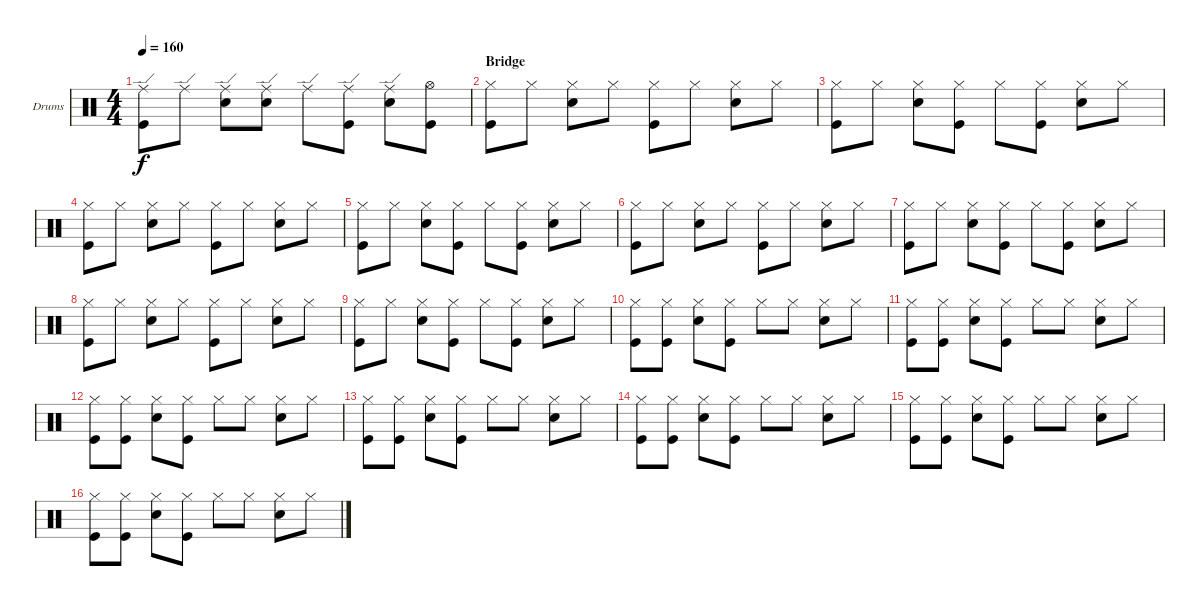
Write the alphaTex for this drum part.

\bracketExtendMode groupsimilarinstruments
\firstSystemTrackNameOrientation horizontal
\otherSystemsTrackNameOrientation horizontal
\track ("Fabrizio" "Drums") {instrument percussion}
\staff {score}
\articulation defaults
\ts (4 4)
\tempo 160
\clef neutral
\ks c
("Kick (hit)" "Ride (edge)").8{dy f} "Ride (edge)".8 ("Snare (hit) 2" "Ride (edge)").8 ("Snare (hit) 2" "Ride (edge)").8 "Ride (edge)".8 ("Kick (hit)" "Ride (edge)").8 ("Snare (hit) 2" "Ride (edge)").8 ("Kick (hit)" "Hi-Hat (open)").8 |
\section ("" "Bridge")
("Hi-Hat (closed)" "Kick (hit)").8 "Hi-Hat (closed)".8 ("Hi-Hat (closed)" "Snare (hit) 2").8 "Hi-Hat (closed)".8 ("Hi-Hat (closed)" "Kick (hit)").8 "Hi-Hat (closed)".8 ("Hi-Hat (closed)" "Snare (hit) 2").8 "Hi-Hat (closed)".8 |
("Hi-Hat (closed)" "Kick (hit)").8 "Hi-Hat (closed)".8 ("Hi-Hat (closed)" "Snare (hit) 2").8 ("Hi-Hat (closed)" "Kick (hit)").8 "Hi-Hat (closed)".8 ("Hi-Hat (closed)" "Kick (hit)").8 ("Hi-Hat (closed)" "Snare (hit) 2").8 "Hi-Hat (closed)".8 |
("Hi-Hat (closed)" "Kick (hit)").8 "Hi-Hat (closed)".8 ("Hi-Hat (closed)" "Snare (hit) 2").8 "Hi-Hat (closed)".8 ("Hi-Hat (closed)" "Kick (hit)").8 "Hi-Hat (closed)".8 ("Hi-Hat (closed)" "Snare (hit) 2").8 "Hi-Hat (closed)".8 |
("Hi-Hat (closed)" "Kick (hit)").8 "Hi-Hat (closed)".8 ("Hi-Hat (closed)" "Snare (hit) 2").8 ("Hi-Hat (closed)" "Kick (hit)").8 "Hi-Hat (closed)".8 ("Hi-Hat (closed)" "Kick (hit)").8 ("Hi-Hat (closed)" "Snare (hit) 2").8 "Hi-Hat (closed)".8 |
("Hi-Hat (closed)" "Kick (hit)").8 "Hi-Hat (closed)".8 ("Hi-Hat (closed)" "Snare (hit) 2").8 "Hi-Hat (closed)".8 ("Hi-Hat (closed)" "Kick (hit)").8 "Hi-Hat (closed)".8 ("Hi-Hat (closed)" "Snare (hit) 2").8 "Hi-Hat (closed)".8 |
("Hi-Hat (closed)" "Kick (hit)").8 "Hi-Hat (closed)".8 ("Hi-Hat (closed)" "Snare (hit) 2").8 ("Hi-Hat (closed)" "Kick (hit)").8 "Hi-Hat (closed)".8 ("Hi-Hat (closed)" "Kick (hit)").8 ("Hi-Hat (closed)" "Snare (hit) 2").8 "Hi-Hat (closed)".8 |
("Hi-Hat (closed)" "Kick (hit)").8 "Hi-Hat (closed)".8 ("Hi-Hat (closed)" "Snare (hit) 2").8 "Hi-Hat (closed)".8 ("Hi-Hat (closed)" "Kick (hit)").8 "Hi-Hat (closed)".8 ("Hi-Hat (closed)" "Snare (hit) 2").8 "Hi-Hat (closed)".8 |
("Hi-Hat (closed)" "Kick (hit)").8 "Hi-Hat (closed)".8 ("Hi-Hat (closed)" "Snare (hit) 2").8 ("Hi-Hat (closed)" "Kick (hit)").8 "Hi-Hat (closed)".8 ("Hi-Hat (closed)" "Kick (hit)").8 ("Hi-Hat (closed)" "Snare (hit) 2").8 "Hi-Hat (closed)".8 |
("Hi-Hat (closed)" "Kick (hit)").8 ("Hi-Hat (closed)" "Kick (hit)").8 ("Hi-Hat (closed)" "Snare (hit) 2").8 ("Hi-Hat (closed)" "Kick (hit)").8 "Hi-Hat (closed)".8 "Hi-Hat (closed)".8 ("Hi-Hat (closed)" "Snare (hit) 2").8 "Hi-Hat (closed)".8 |
("Hi-Hat (closed)" "Kick (hit)").8 ("Hi-Hat (closed)" "Kick (hit)").8 ("Hi-Hat (closed)" "Snare (hit) 2").8 ("Hi-Hat (closed)" "Kick (hit)").8 "Hi-Hat (closed)".8 "Hi-Hat (closed)".8 ("Hi-Hat (closed)" "Snare (hit) 2").8 "Hi-Hat (closed)".8 |
("Hi-Hat (closed)" "Kick (hit)").8 ("Hi-Hat (closed)" "Kick (hit)").8 ("Hi-Hat (closed)" "Snare (hit) 2").8 ("Hi-Hat (closed)" "Kick (hit)").8 "Hi-Hat (closed)".8 "Hi-Hat (closed)".8 ("Hi-Hat (closed)" "Snare (hit) 2").8 "Hi-Hat (closed)".8 |
("Hi-Hat (closed)" "Kick (hit)").8 ("Hi-Hat (closed)" "Kick (hit)").8 ("Hi-Hat (closed)" "Snare (hit) 2").8 ("Hi-Hat (closed)" "Kick (hit)").8 "Hi-Hat (closed)".8 "Hi-Hat (closed)".8 ("Hi-Hat (closed)" "Snare (hit) 2").8 "Hi-Hat (closed)".8 |
("Hi-Hat (closed)" "Kick (hit)").8 ("Hi-Hat (closed)" "Kick (hit)").8 ("Hi-Hat (closed)" "Snare (hit) 2").8 ("Hi-Hat (closed)" "Kick (hit)").8 "Hi-Hat (closed)".8 "Hi-Hat (closed)".8 ("Hi-Hat (closed)" "Snare (hit) 2").8 "Hi-Hat (closed)".8 |
("Hi-Hat (closed)" "Kick (hit)").8 ("Hi-Hat (closed)" "Kick (hit)").8 ("Hi-Hat (closed)" "Snare (hit) 2").8 ("Hi-Hat (closed)" "Kick (hit)").8 "Hi-Hat (closed)".8 "Hi-Hat (closed)".8 ("Hi-Hat (closed)" "Snare (hit) 2").8 "Hi-Hat (closed)".8 |
("Hi-Hat (closed)" "Kick (hit)").8 ("Hi-Hat (closed)" "Kick (hit)").8 ("Hi-Hat (closed)" "Snare (hit) 2").8 ("Hi-Hat (closed)" "Kick (hit)").8 "Hi-Hat (closed)".8 "Hi-Hat (closed)".8 ("Hi-Hat (closed)" "Snare (hit) 2").8 "Hi-Hat (closed)".8
